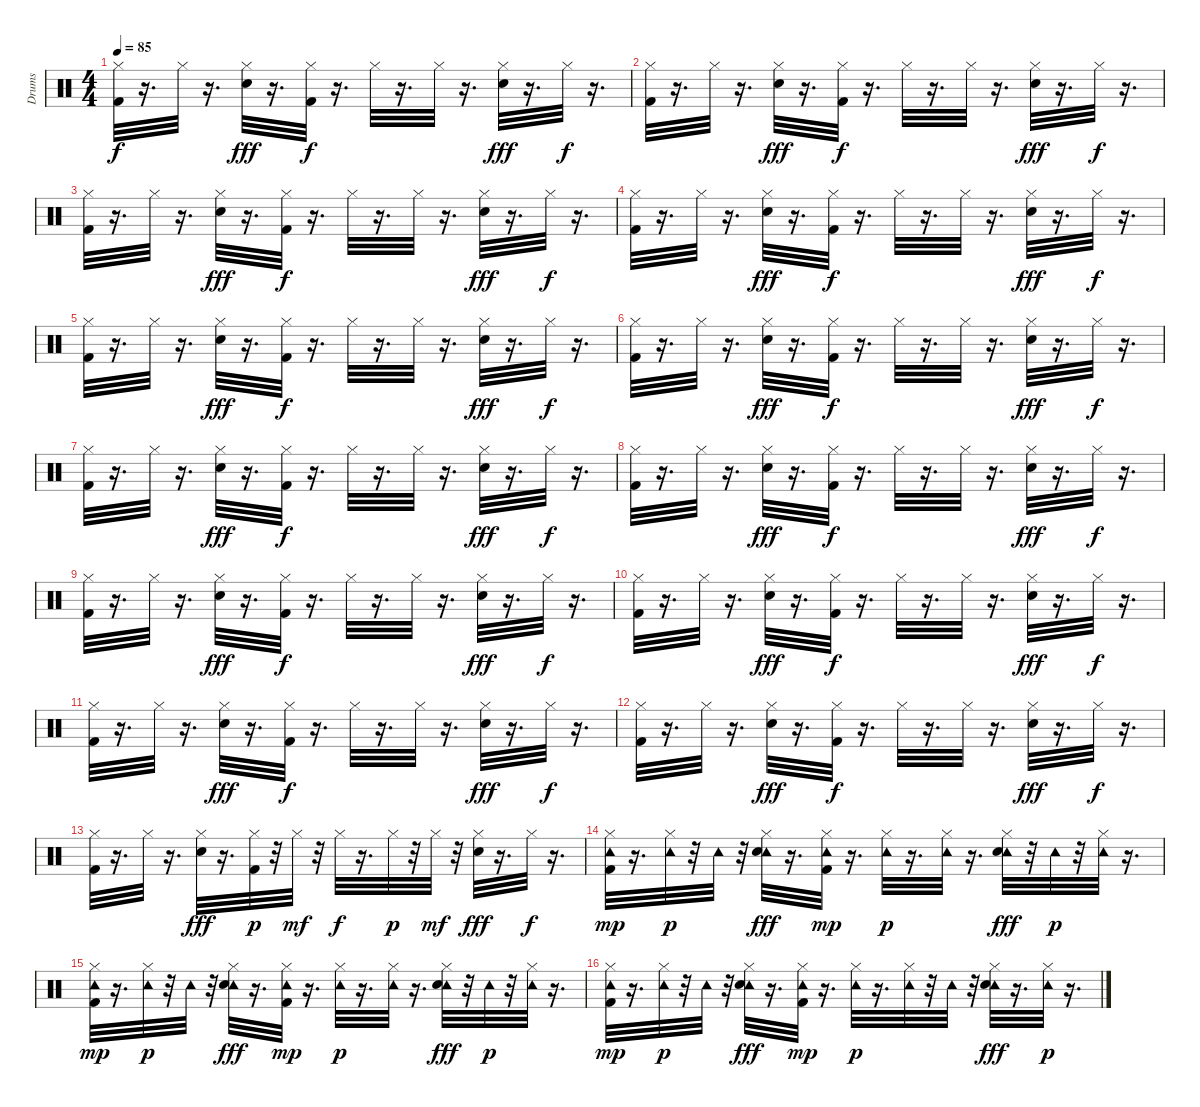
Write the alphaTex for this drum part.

\track ("Drums" "Drums") {instrument percussion}
\staff {score}
\articulation defaults
\ts (4 4)
\tempo 85
\clef neutral
\ks c
("Hi-Hat (closed)" "Kick (hit) 2").32{dy f} r.16{d} "Hi-Hat (closed)".32 r.16{d} ("Hi-Hat (closed)" "Electric Snare (hit)").32{dy fff} r.16{d} ("Hi-Hat (closed)" "Kick (hit) 2").32{dy f} r.16{d} "Hi-Hat (closed)".32 r.16{d} "Hi-Hat (closed)".32 r.16{d} ("Hi-Hat (closed)" "Electric Snare (hit)").32{dy fff} r.16{d} "Hi-Hat (closed)".32{dy f} r.16{d} |
("Hi-Hat (closed)" "Kick (hit) 2").32 r.16{d} "Hi-Hat (closed)".32 r.16{d} ("Hi-Hat (closed)" "Electric Snare (hit)").32{dy fff} r.16{d} ("Hi-Hat (closed)" "Kick (hit) 2").32{dy f} r.16{d} "Hi-Hat (closed)".32 r.16{d} "Hi-Hat (closed)".32 r.16{d} ("Hi-Hat (closed)" "Electric Snare (hit)").32{dy fff} r.16{d} "Hi-Hat (closed)".32{dy f} r.16{d} |
("Hi-Hat (closed)" "Kick (hit) 2").32 r.16{d} "Hi-Hat (closed)".32 r.16{d} ("Hi-Hat (closed)" "Electric Snare (hit)").32{dy fff} r.16{d} ("Hi-Hat (closed)" "Kick (hit) 2").32{dy f} r.16{d} "Hi-Hat (closed)".32 r.16{d} "Hi-Hat (closed)".32 r.16{d} ("Hi-Hat (closed)" "Electric Snare (hit)").32{dy fff} r.16{d} "Hi-Hat (closed)".32{dy f} r.16{d} |
("Hi-Hat (closed)" "Kick (hit) 2").32 r.16{d} "Hi-Hat (closed)".32 r.16{d} ("Hi-Hat (closed)" "Electric Snare (hit)").32{dy fff} r.16{d} ("Hi-Hat (closed)" "Kick (hit) 2").32{dy f} r.16{d} "Hi-Hat (closed)".32 r.16{d} "Hi-Hat (closed)".32 r.16{d} ("Hi-Hat (closed)" "Electric Snare (hit)").32{dy fff} r.16{d} "Hi-Hat (closed)".32{dy f} r.16{d} |
("Hi-Hat (closed)" "Kick (hit) 2").32 r.16{d} "Hi-Hat (closed)".32 r.16{d} ("Hi-Hat (closed)" "Electric Snare (hit)").32{dy fff} r.16{d} ("Hi-Hat (closed)" "Kick (hit) 2").32{dy f} r.16{d} "Hi-Hat (closed)".32 r.16{d} "Hi-Hat (closed)".32 r.16{d} ("Hi-Hat (closed)" "Electric Snare (hit)").32{dy fff} r.16{d} "Hi-Hat (closed)".32{dy f} r.16{d} |
("Hi-Hat (closed)" "Kick (hit) 2").32 r.16{d} "Hi-Hat (closed)".32 r.16{d} ("Hi-Hat (closed)" "Electric Snare (hit)").32{dy fff} r.16{d} ("Hi-Hat (closed)" "Kick (hit) 2").32{dy f} r.16{d} "Hi-Hat (closed)".32 r.16{d} "Hi-Hat (closed)".32 r.16{d} ("Hi-Hat (closed)" "Electric Snare (hit)").32{dy fff} r.16{d} "Hi-Hat (closed)".32{dy f} r.16{d} |
("Hi-Hat (closed)" "Kick (hit) 2").32 r.16{d} "Hi-Hat (closed)".32 r.16{d} ("Hi-Hat (closed)" "Electric Snare (hit)").32{dy fff} r.16{d} ("Hi-Hat (closed)" "Kick (hit) 2").32{dy f} r.16{d} "Hi-Hat (closed)".32 r.16{d} "Hi-Hat (closed)".32 r.16{d} ("Hi-Hat (closed)" "Electric Snare (hit)").32{dy fff} r.16{d} "Hi-Hat (closed)".32{dy f} r.16{d} |
("Hi-Hat (closed)" "Kick (hit) 2").32 r.16{d} "Hi-Hat (closed)".32 r.16{d} ("Hi-Hat (closed)" "Electric Snare (hit)").32{dy fff} r.16{d} ("Hi-Hat (closed)" "Kick (hit) 2").32{dy f} r.16{d} "Hi-Hat (closed)".32 r.16{d} "Hi-Hat (closed)".32 r.16{d} ("Hi-Hat (closed)" "Electric Snare (hit)").32{dy fff} r.16{d} "Hi-Hat (closed)".32{dy f} r.16{d} |
("Hi-Hat (closed)" "Kick (hit) 2").32 r.16{d} "Hi-Hat (closed)".32 r.16{d} ("Hi-Hat (closed)" "Electric Snare (hit)").32{dy fff} r.16{d} ("Hi-Hat (closed)" "Kick (hit) 2").32{dy f} r.16{d} "Hi-Hat (closed)".32 r.16{d} "Hi-Hat (closed)".32 r.16{d} ("Hi-Hat (closed)" "Electric Snare (hit)").32{dy fff} r.16{d} "Hi-Hat (closed)".32{dy f} r.16{d} |
("Hi-Hat (closed)" "Kick (hit) 2").32 r.16{d} "Hi-Hat (closed)".32 r.16{d} ("Hi-Hat (closed)" "Electric Snare (hit)").32{dy fff} r.16{d} ("Hi-Hat (closed)" "Kick (hit) 2").32{dy f} r.16{d} "Hi-Hat (closed)".32 r.16{d} "Hi-Hat (closed)".32 r.16{d} ("Hi-Hat (closed)" "Electric Snare (hit)").32{dy fff} r.16{d} "Hi-Hat (closed)".32{dy f} r.16{d} |
("Hi-Hat (closed)" "Kick (hit) 2").32 r.16{d} "Hi-Hat (closed)".32 r.16{d} ("Hi-Hat (closed)" "Electric Snare (hit)").32{dy fff} r.16{d} ("Hi-Hat (closed)" "Kick (hit) 2").32{dy f} r.16{d} "Hi-Hat (closed)".32 r.16{d} "Hi-Hat (closed)".32 r.16{d} ("Hi-Hat (closed)" "Electric Snare (hit)").32{dy fff} r.16{d} "Hi-Hat (closed)".32{dy f} r.16{d} |
("Hi-Hat (closed)" "Kick (hit) 2").32 r.16{d} "Hi-Hat (closed)".32 r.16{d} ("Hi-Hat (closed)" "Electric Snare (hit)").32{dy fff} r.16{d} ("Hi-Hat (closed)" "Kick (hit) 2").32{dy f} r.16{d} "Hi-Hat (closed)".32 r.16{d} "Hi-Hat (closed)".32 r.16{d} ("Hi-Hat (closed)" "Electric Snare (hit)").32{dy fff} r.16{d} "Hi-Hat (closed)".32{dy f} r.16{d} |
("Hi-Hat (closed)" "Kick (hit) 2").32 r.16{d} "Hi-Hat (closed)".32 r.16{d} ("Hi-Hat (closed)" "Electric Snare (hit)").32{dy fff} r.16{d} ("Hi-Hat (closed)" "Kick (hit) 2").32{dy p} r.32 "Hi-Hat (closed)".32{dy mf} r.32 "Hi-Hat (closed)".32{dy f} r.16{d} "Hi-Hat (closed)".32{dy p} r.32 "Hi-Hat (closed)".32{dy mf} r.32 ("Hi-Hat (closed)" "Electric Snare (hit)").32{dy fff} r.16{d} "Hi-Hat (closed)".32{dy f} r.16{d} |
("Tambourine (hit)" "Hi-Hat (closed)" "Kick (hit) 2").32{dy mp} r.16{d} ("Tambourine (hit)" "Hi-Hat (closed)").32{dy p} r.32 "Tambourine (hit)".32 r.32 ("Tambourine (hit)" "Hi-Hat (closed)" "Electric Snare (hit)").32{dy fff} r.16{d} ("Tambourine (hit)" "Hi-Hat (closed)" "Kick (hit) 2").32{dy mp} r.16{d} ("Tambourine (hit)" "Hi-Hat (closed)").32{dy p} r.16{d} ("Tambourine (hit)" "Hi-Hat (closed)").32 r.16{d} ("Tambourine (hit)" "Hi-Hat (closed)" "Electric Snare (hit)").32{dy fff} r.32 "Tambourine (hit)".32{dy p} r.32 ("Tambourine (hit)" "Hi-Hat (closed)").32 r.16{d} |
("Tambourine (hit)" "Hi-Hat (closed)" "Kick (hit) 2").32{dy mp} r.16{d} ("Tambourine (hit)" "Hi-Hat (closed)").32{dy p} r.32 "Tambourine (hit)".32 r.32 ("Tambourine (hit)" "Hi-Hat (closed)" "Electric Snare (hit)").32{dy fff} r.16{d} ("Tambourine (hit)" "Hi-Hat (closed)" "Kick (hit) 2").32{dy mp} r.16{d} ("Tambourine (hit)" "Hi-Hat (closed)").32{dy p} r.16{d} ("Tambourine (hit)" "Hi-Hat (closed)").32 r.16{d} ("Tambourine (hit)" "Hi-Hat (closed)" "Electric Snare (hit)").32{dy fff} r.32 "Tambourine (hit)".32{dy p} r.32 ("Tambourine (hit)" "Hi-Hat (closed)").32 r.16{d} |
("Tambourine (hit)" "Hi-Hat (closed)" "Kick (hit) 2").32{dy mp} r.16{d} ("Tambourine (hit)" "Hi-Hat (closed)").32{dy p} r.32 "Tambourine (hit)".32 r.32 ("Tambourine (hit)" "Hi-Hat (closed)" "Electric Snare (hit)").32{dy fff} r.16{d} ("Tambourine (hit)" "Hi-Hat (closed)" "Kick (hit) 2").32{dy mp} r.16{d} ("Tambourine (hit)" "Hi-Hat (closed)").32{dy p} r.16{d} ("Tambourine (hit)" "Hi-Hat (closed)").32 r.32 "Tambourine (hit)".32 r.32 ("Tambourine (hit)" "Hi-Hat (closed)" "Electric Snare (hit)").32{dy fff} r.16{d} ("Tambourine (hit)" "Hi-Hat (closed)").32{dy p} r.16{d}
